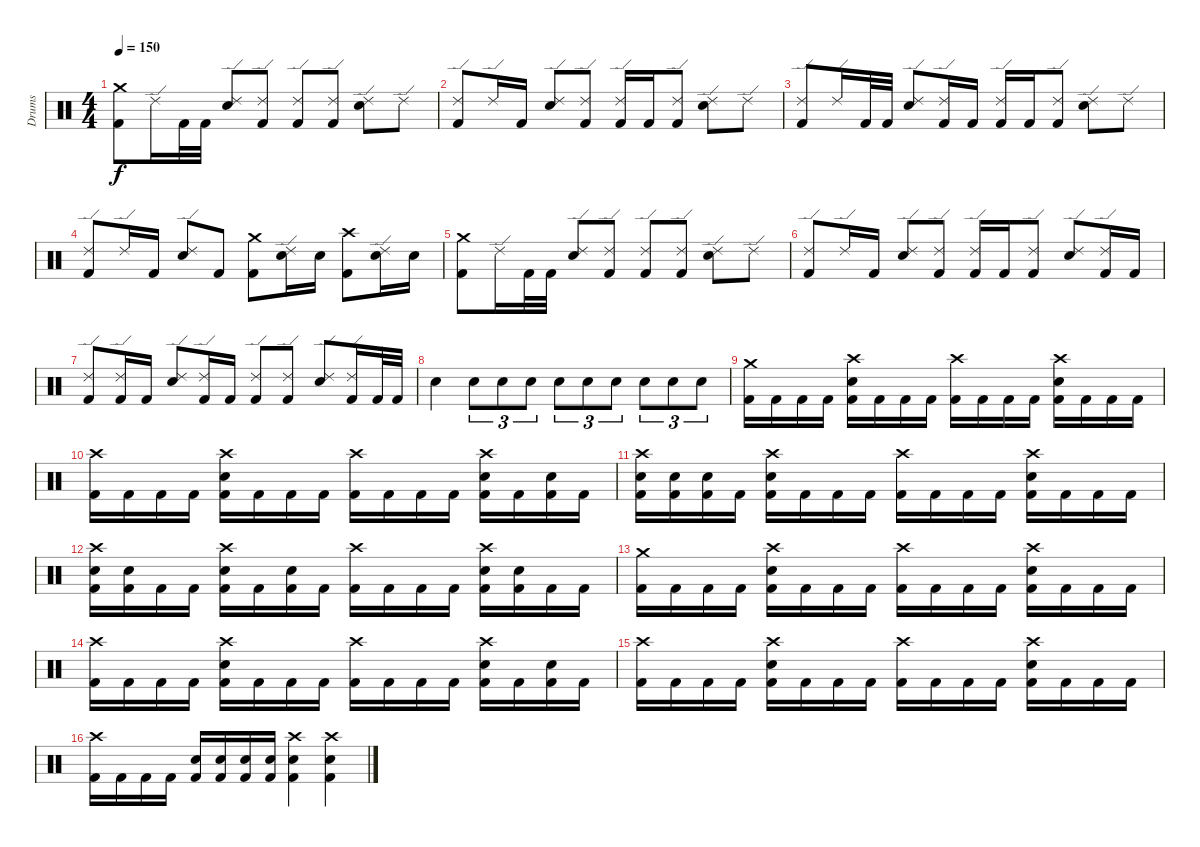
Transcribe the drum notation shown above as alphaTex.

\track ("Drums" "Drums") {instrument percussion}
\staff {score}
\articulation defaults
\ts (4 4)
\tempo 150
\clef neutral
\ks c
("Crash medium (hit)" "Kick (hit) 2").8{dy f} "Ride (edge) 2".16 "Kick (hit) 2".32 "Kick (hit) 2".32 ("Ride (edge) 2" "Electric Snare (hit)").8 ("Ride (edge) 2" "Kick (hit) 2").8 ("Ride (edge) 2" "Kick (hit) 2").8 ("Ride (edge) 2" "Kick (hit) 2").8 ("Ride (edge) 2" "Electric Snare (hit)").8 "Ride (edge) 2".8 |
("Ride (edge) 2" "Kick (hit) 2").8 "Ride (edge) 2".16 "Kick (hit) 2".16 ("Ride (edge) 2" "Electric Snare (hit)").8 ("Ride (edge) 2" "Kick (hit) 2").8 ("Ride (edge) 2" "Kick (hit) 2").16 "Kick (hit) 2".16 ("Ride (edge) 2" "Kick (hit) 2").8 ("Ride (edge) 2" "Electric Snare (hit)").8 "Ride (edge) 2".8 |
("Ride (edge) 2" "Kick (hit) 2").8 "Ride (edge) 2".16 "Kick (hit) 2".32 "Kick (hit) 2".32 ("Ride (edge) 2" "Electric Snare (hit)").8 ("Ride (edge) 2" "Kick (hit) 2").16 "Kick (hit) 2".16 ("Ride (edge) 2" "Kick (hit) 2").16 "Kick (hit) 2".16 ("Ride (edge) 2" "Kick (hit) 2").8 ("Ride (edge) 2" "Electric Snare (hit)").8 "Ride (edge) 2".8 |
("Ride (edge) 2" "Kick (hit) 2").8 "Ride (edge) 2".16 "Kick (hit) 2".16 ("Ride (edge) 2" "Electric Snare (hit)").8 "Kick (hit) 2".8 ("Crash medium (hit)" "Kick (hit) 2").8 ("Ride (edge) 2" "Electric Snare (hit)").16 "Electric Snare (hit)".16 ("Crash high (hit)" "Kick (hit) 2").8 ("Ride (edge) 2" "Electric Snare (hit)").16 "Electric Snare (hit)".16 |
("Crash medium (hit)" "Kick (hit) 2").8 "Ride (edge) 2".16 "Kick (hit) 2".32 "Kick (hit) 2".32 ("Ride (edge) 2" "Electric Snare (hit)").8 ("Ride (edge) 2" "Kick (hit) 2").8 ("Ride (edge) 2" "Kick (hit) 2").8 ("Ride (edge) 2" "Kick (hit) 2").8 ("Ride (edge) 2" "Electric Snare (hit)").8 "Ride (edge) 2".8 |
("Ride (edge) 2" "Kick (hit) 2").8 "Ride (edge) 2".16 "Kick (hit) 2".16 ("Ride (edge) 2" "Electric Snare (hit)").8 ("Ride (edge) 2" "Kick (hit) 2").8 ("Ride (edge) 2" "Kick (hit) 2").16 "Kick (hit) 2".16 ("Ride (edge) 2" "Kick (hit) 2").8 ("Ride (edge) 2" "Electric Snare (hit)").8 ("Ride (edge) 2" "Kick (hit) 2").16 "Kick (hit) 2".16 |
("Ride (edge) 2" "Kick (hit) 2").8 ("Ride (edge) 2" "Kick (hit) 2").16 "Kick (hit) 2".16 ("Ride (edge) 2" "Electric Snare (hit)").8 ("Ride (edge) 2" "Kick (hit) 2").16 "Kick (hit) 2".16 ("Ride (edge) 2" "Kick (hit) 2").8 ("Ride (edge) 2" "Kick (hit) 2").8 ("Ride (edge) 2" "Electric Snare (hit)").8 ("Ride (edge) 2" "Kick (hit) 2").16 "Kick (hit) 2".32 "Kick (hit) 2".32 |
"Electric Snare (hit)".4 "Electric Snare (hit)".8{tu (3 2)} "Electric Snare (hit)".8{tu (3 2)} "Electric Snare (hit)".8{tu (3 2)} "Electric Snare (hit)".8{tu (3 2)} "Electric Snare (hit)".8{tu (3 2)} "Electric Snare (hit)".8{tu (3 2)} "Electric Snare (hit)".8{tu (3 2)} "Electric Snare (hit)".8{tu (3 2)} "Electric Snare (hit)".8{tu (3 2)} |
("Crash medium (hit)" "Kick (hit) 2").16 "Kick (hit) 2".16 "Kick (hit) 2".16 "Kick (hit) 2".16 ("Crash high (hit)" "Electric Snare (hit)" "Kick (hit) 2").16 "Kick (hit) 2".16 "Kick (hit) 2".16 "Kick (hit) 2".16 ("Crash high (hit)" "Kick (hit) 2").16 "Kick (hit) 2".16 "Kick (hit) 2".16 "Kick (hit) 2".16 ("Crash high (hit)" "Electric Snare (hit)" "Kick (hit) 2").16 "Kick (hit) 2".16 "Kick (hit) 2".16 "Kick (hit) 2".16 |
("Crash high (hit)" "Kick (hit) 2").16 "Kick (hit) 2".16 "Kick (hit) 2".16 "Kick (hit) 2".16 ("Crash high (hit)" "Electric Snare (hit)" "Kick (hit) 2").16 "Kick (hit) 2".16 "Kick (hit) 2".16 "Kick (hit) 2".16 ("Crash high (hit)" "Kick (hit) 2").16 "Kick (hit) 2".16 "Kick (hit) 2".16 "Kick (hit) 2".16 ("Crash high (hit)" "Electric Snare (hit)" "Kick (hit) 2").16 "Kick (hit) 2".16 ("Electric Snare (hit)" "Kick (hit) 2").16 "Kick (hit) 2".16 |
("Crash high (hit)" "Electric Snare (hit)" "Kick (hit) 2").16 ("Electric Snare (hit)" "Kick (hit) 2").16 ("Electric Snare (hit)" "Kick (hit) 2").16 "Kick (hit) 2".16 ("Crash high (hit)" "Electric Snare (hit)" "Kick (hit) 2").16 "Kick (hit) 2".16 "Kick (hit) 2".16 "Kick (hit) 2".16 ("Crash high (hit)" "Kick (hit) 2").16 "Kick (hit) 2".16 "Kick (hit) 2".16 "Kick (hit) 2".16 ("Crash high (hit)" "Electric Snare (hit)" "Kick (hit) 2").16 "Kick (hit) 2".16 "Kick (hit) 2".16 "Kick (hit) 2".16 |
("Crash high (hit)" "Electric Snare (hit)" "Kick (hit) 2").16 ("Electric Snare (hit)" "Kick (hit) 2").16 "Kick (hit) 2".16 "Kick (hit) 2".16 ("Crash high (hit)" "Electric Snare (hit)" "Kick (hit) 2").16 "Kick (hit) 2".16 ("Electric Snare (hit)" "Kick (hit) 2").16 "Kick (hit) 2".16 ("Crash high (hit)" "Kick (hit) 2").16 "Kick (hit) 2".16 "Kick (hit) 2".16 "Kick (hit) 2".16 ("Crash high (hit)" "Electric Snare (hit)" "Kick (hit) 2").16 ("Electric Snare (hit)" "Kick (hit) 2").16 "Kick (hit) 2".16 "Kick (hit) 2".16 |
("Crash medium (hit)" "Kick (hit) 2").16 "Kick (hit) 2".16 "Kick (hit) 2".16 "Kick (hit) 2".16 ("Crash high (hit)" "Electric Snare (hit)" "Kick (hit) 2").16 "Kick (hit) 2".16 "Kick (hit) 2".16 "Kick (hit) 2".16 ("Crash high (hit)" "Kick (hit) 2").16 "Kick (hit) 2".16 "Kick (hit) 2".16 "Kick (hit) 2".16 ("Crash high (hit)" "Electric Snare (hit)" "Kick (hit) 2").16 "Kick (hit) 2".16 "Kick (hit) 2".16 "Kick (hit) 2".16 |
("Crash high (hit)" "Kick (hit) 2").16 "Kick (hit) 2".16 "Kick (hit) 2".16 "Kick (hit) 2".16 ("Crash high (hit)" "Electric Snare (hit)" "Kick (hit) 2").16 "Kick (hit) 2".16 "Kick (hit) 2".16 "Kick (hit) 2".16 ("Crash high (hit)" "Kick (hit) 2").16 "Kick (hit) 2".16 "Kick (hit) 2".16 "Kick (hit) 2".16 ("Crash high (hit)" "Electric Snare (hit)" "Kick (hit) 2").16 "Kick (hit) 2".16 ("Electric Snare (hit)" "Kick (hit) 2").16 "Kick (hit) 2".16 |
("Crash high (hit)" "Kick (hit) 2").16 "Kick (hit) 2".16 "Kick (hit) 2".16 "Kick (hit) 2".16 ("Crash high (hit)" "Electric Snare (hit)" "Kick (hit) 2").16 "Kick (hit) 2".16 "Kick (hit) 2".16 "Kick (hit) 2".16 ("Crash high (hit)" "Kick (hit) 2").16 "Kick (hit) 2".16 "Kick (hit) 2".16 "Kick (hit) 2".16 ("Crash high (hit)" "Electric Snare (hit)" "Kick (hit) 2").16 "Kick (hit) 2".16 "Kick (hit) 2".16 "Kick (hit) 2".16 |
("Crash high (hit)" "Kick (hit) 2").16 "Kick (hit) 2".16 "Kick (hit) 2".16 "Kick (hit) 2".16 ("Electric Snare (hit)" "Kick (hit) 2").16 ("Electric Snare (hit)" "Kick (hit) 2").16 ("Electric Snare (hit)" "Kick (hit) 2").16 ("Electric Snare (hit)" "Kick (hit) 2").16 ("Crash high (hit)" "Electric Snare (hit)" "Kick (hit) 2").4 ("Crash high (hit)" "Electric Snare (hit)" "Kick (hit) 2").4
